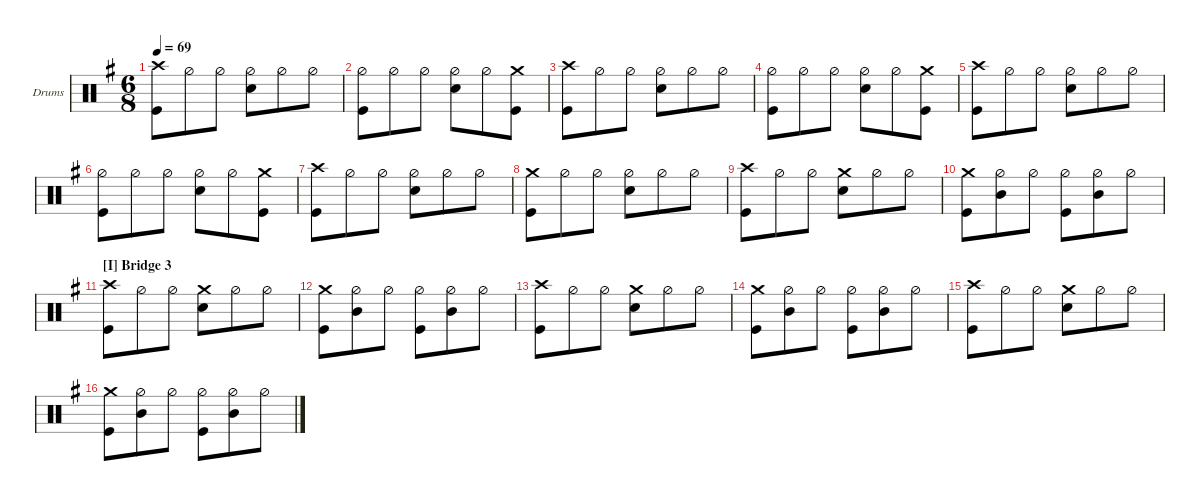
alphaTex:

\hideDynamics
\bracketExtendMode groupsimilarinstruments
\firstSystemTrackNameOrientation horizontal
\otherSystemsTrackNameOrientation horizontal
\track ("Drumkit" "Drums") {multiBarRest instrument percussion}
\staff {score}
\articulation defaults
\ts (6 8)
\tempo 69
\clef neutral
\ks g
("Crash high (hit)" "Kick (hit)").8{dy f} "Hi-Hat (half)".8 "Hi-Hat (half)".8 ("Hi-Hat (half)" "Snare (hit) 2").8 "Hi-Hat (half)".8 "Hi-Hat (half)".8 |
("Hi-Hat (half)" "Kick (hit)").8 "Hi-Hat (half)".8 "Hi-Hat (half)".8 ("Hi-Hat (half)" "Snare (hit) 2").8 "Hi-Hat (half)".8 ("Crash medium (hit)" "Kick (hit)").8 |
("Crash high (hit)" "Kick (hit)").8 "Hi-Hat (half)".8 "Hi-Hat (half)".8 ("Hi-Hat (half)" "Snare (hit) 2").8 "Hi-Hat (half)".8 "Hi-Hat (half)".8 |
("Hi-Hat (half)" "Kick (hit)").8 "Hi-Hat (half)".8 "Hi-Hat (half)".8 ("Hi-Hat (half)" "Snare (hit) 2").8 "Hi-Hat (half)".8 ("Crash medium (hit)" "Kick (hit)").8 |
("Crash high (hit)" "Kick (hit)").8 "Hi-Hat (half)".8 "Hi-Hat (half)".8 ("Hi-Hat (half)" "Snare (hit) 2").8 "Hi-Hat (half)".8 "Hi-Hat (half)".8 |
("Hi-Hat (half)" "Kick (hit)").8 "Hi-Hat (half)".8 "Hi-Hat (half)".8 ("Hi-Hat (half)" "Snare (hit) 2").8 "Hi-Hat (half)".8 ("Crash medium (hit)" "Kick (hit)").8 |
("Crash high (hit)" "Kick (hit)").8 "Hi-Hat (half)".8 "Hi-Hat (half)".8 ("Hi-Hat (half)" "Snare (hit) 2").8 "Hi-Hat (half)".8 "Hi-Hat (half)".8 |
("Crash medium (hit)" "Kick (hit)").8 "Hi-Hat (half)".8 "Hi-Hat (half)".8 ("Hi-Hat (half)" "Snare (hit) 2").8 "Hi-Hat (half)".8 "Hi-Hat (half)".8 |
("Crash high (hit)" "Kick (hit)").8 "Hi-Hat (half)".8 "Hi-Hat (half)".8 ("Crash medium (hit)" "Snare (hit) 2").8 "Hi-Hat (half)".8 "Hi-Hat (half)".8 |
("Crash medium (hit)" "Kick (hit)").8 ("Hi-Hat (half)" "Mid Tom (hit)").8 "Hi-Hat (half)".8 ("Hi-Hat (half)" "Kick (hit)").8 ("Hi-Hat (half)" "Mid Tom (hit)").8 "Hi-Hat (half)".8 |
\section ("I" "Bridge 3")
("Crash high (hit)" "Kick (hit)").8 "Hi-Hat (half)".8 "Hi-Hat (half)".8 ("Crash medium (hit)" "Snare (hit) 2").8 "Hi-Hat (half)".8 "Hi-Hat (half)".8 |
("Crash medium (hit)" "Kick (hit)").8 ("Hi-Hat (half)" "Mid Tom (hit)").8 "Hi-Hat (half)".8 ("Hi-Hat (half)" "Kick (hit)").8 ("Hi-Hat (half)" "Mid Tom (hit)").8 "Hi-Hat (half)".8 |
("Crash high (hit)" "Kick (hit)").8 "Hi-Hat (half)".8 "Hi-Hat (half)".8 ("Crash medium (hit)" "Snare (hit) 2").8 "Hi-Hat (half)".8 "Hi-Hat (half)".8 |
("Crash medium (hit)" "Kick (hit)").8 ("Hi-Hat (half)" "Mid Tom (hit)").8 "Hi-Hat (half)".8 ("Hi-Hat (half)" "Kick (hit)").8 ("Hi-Hat (half)" "Mid Tom (hit)").8 "Hi-Hat (half)".8 |
("Crash high (hit)" "Kick (hit)").8 "Hi-Hat (half)".8 "Hi-Hat (half)".8 ("Crash medium (hit)" "Snare (hit) 2").8 "Hi-Hat (half)".8 "Hi-Hat (half)".8 |
("Crash medium (hit)" "Kick (hit)").8 ("Hi-Hat (half)" "Mid Tom (hit)").8 "Hi-Hat (half)".8 ("Hi-Hat (half)" "Kick (hit)").8 ("Hi-Hat (half)" "Mid Tom (hit)").8 "Hi-Hat (half)".8
